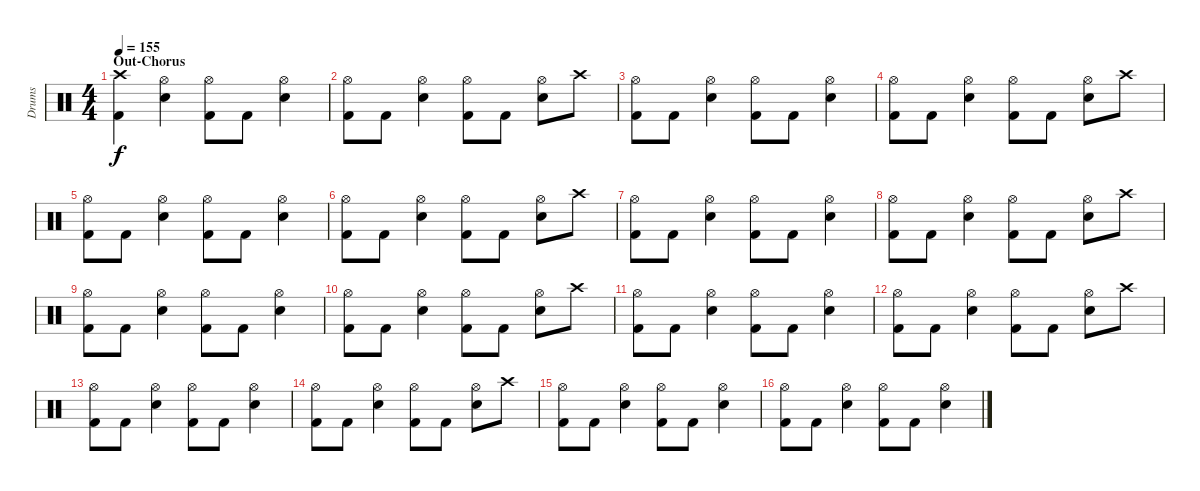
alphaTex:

\track ("Drums" "Drums") {instrument percussion}
\staff {score}
\articulation defaults
\ts (4 4)
\section ("" "Out-Chorus")
\tempo 155
\clef neutral
\ks c
("Crash high (hit)" "Kick (hit) 2").4{dy f} ("Hi-Hat (open)" "Snare (hit) 2").4 ("Hi-Hat (open)" "Kick (hit) 2").8 "Kick (hit) 2".8 ("Hi-Hat (open)" "Snare (hit) 2").4 |
("Hi-Hat (open)" "Kick (hit) 2").8 "Kick (hit) 2".8 ("Hi-Hat (open)" "Snare (hit) 2").4 ("Hi-Hat (open)" "Kick (hit) 2").8 "Kick (hit) 2".8 ("Hi-Hat (open)" "Snare (hit) 2").8 "Crash high (hit)".8 |
("Hi-Hat (open)" "Kick (hit) 2").8 "Kick (hit) 2".8 ("Hi-Hat (open)" "Snare (hit) 2").4 ("Hi-Hat (open)" "Kick (hit) 2").8 "Kick (hit) 2".8 ("Hi-Hat (open)" "Snare (hit) 2").4 |
("Hi-Hat (open)" "Kick (hit) 2").8 "Kick (hit) 2".8 ("Hi-Hat (open)" "Snare (hit) 2").4 ("Hi-Hat (open)" "Kick (hit) 2").8 "Kick (hit) 2".8 ("Hi-Hat (open)" "Snare (hit) 2").8 "Crash high (hit)".8 |
("Hi-Hat (open)" "Kick (hit) 2").8 "Kick (hit) 2".8 ("Hi-Hat (open)" "Snare (hit) 2").4 ("Hi-Hat (open)" "Kick (hit) 2").8 "Kick (hit) 2".8 ("Hi-Hat (open)" "Snare (hit) 2").4 |
("Hi-Hat (open)" "Kick (hit) 2").8 "Kick (hit) 2".8 ("Hi-Hat (open)" "Snare (hit) 2").4 ("Hi-Hat (open)" "Kick (hit) 2").8 "Kick (hit) 2".8 ("Hi-Hat (open)" "Snare (hit) 2").8 "Crash high (hit)".8 |
("Hi-Hat (open)" "Kick (hit) 2").8 "Kick (hit) 2".8 ("Hi-Hat (open)" "Snare (hit) 2").4 ("Hi-Hat (open)" "Kick (hit) 2").8 "Kick (hit) 2".8 ("Hi-Hat (open)" "Snare (hit) 2").4 |
("Hi-Hat (open)" "Kick (hit) 2").8 "Kick (hit) 2".8 ("Hi-Hat (open)" "Snare (hit) 2").4 ("Hi-Hat (open)" "Kick (hit) 2").8 "Kick (hit) 2".8 ("Hi-Hat (open)" "Snare (hit) 2").8 "Crash high (hit)".8 |
("Hi-Hat (open)" "Kick (hit) 2").8 "Kick (hit) 2".8 ("Hi-Hat (open)" "Snare (hit) 2").4 ("Hi-Hat (open)" "Kick (hit) 2").8 "Kick (hit) 2".8 ("Hi-Hat (open)" "Snare (hit) 2").4 |
("Hi-Hat (open)" "Kick (hit) 2").8 "Kick (hit) 2".8 ("Hi-Hat (open)" "Snare (hit) 2").4 ("Hi-Hat (open)" "Kick (hit) 2").8 "Kick (hit) 2".8 ("Hi-Hat (open)" "Snare (hit) 2").8 "Crash high (hit)".8 |
("Hi-Hat (open)" "Kick (hit) 2").8 "Kick (hit) 2".8 ("Hi-Hat (open)" "Snare (hit) 2").4 ("Hi-Hat (open)" "Kick (hit) 2").8 "Kick (hit) 2".8 ("Hi-Hat (open)" "Snare (hit) 2").4 |
("Hi-Hat (open)" "Kick (hit) 2").8 "Kick (hit) 2".8 ("Hi-Hat (open)" "Snare (hit) 2").4 ("Hi-Hat (open)" "Kick (hit) 2").8 "Kick (hit) 2".8 ("Hi-Hat (open)" "Snare (hit) 2").8 "Crash high (hit)".8 |
("Hi-Hat (open)" "Kick (hit) 2").8 "Kick (hit) 2".8 ("Hi-Hat (open)" "Snare (hit) 2").4 ("Hi-Hat (open)" "Kick (hit) 2").8 "Kick (hit) 2".8 ("Hi-Hat (open)" "Snare (hit) 2").4 |
("Hi-Hat (open)" "Kick (hit) 2").8 "Kick (hit) 2".8 ("Hi-Hat (open)" "Snare (hit) 2").4 ("Hi-Hat (open)" "Kick (hit) 2").8 "Kick (hit) 2".8 ("Hi-Hat (open)" "Snare (hit) 2").8 "Crash high (hit)".8 |
("Hi-Hat (open)" "Kick (hit) 2").8 "Kick (hit) 2".8 ("Hi-Hat (open)" "Snare (hit) 2").4 ("Hi-Hat (open)" "Kick (hit) 2").8 "Kick (hit) 2".8 ("Hi-Hat (open)" "Snare (hit) 2").4 |
("Hi-Hat (open)" "Kick (hit) 2").8 "Kick (hit) 2".8 ("Hi-Hat (open)" "Snare (hit) 2").4 ("Hi-Hat (open)" "Kick (hit) 2").8 "Kick (hit) 2".8 ("Hi-Hat (open)" "Snare (hit) 2").4
